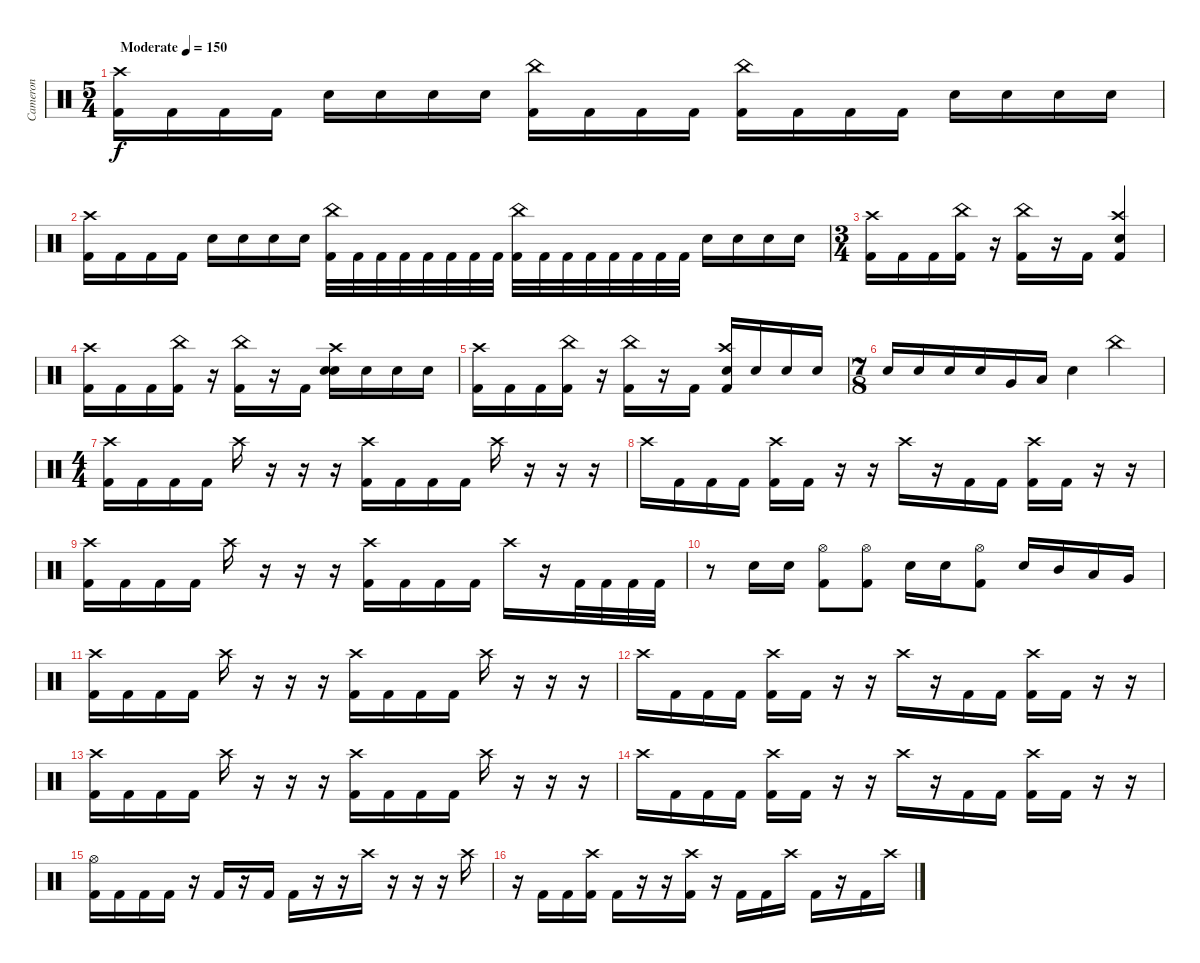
\track ("Cameron" "Cameron") {instrument percussion}
\staff {score}
\articulation defaults
\ts (5 4)
\tempo (150 "Moderate")
\clef neutral
\ks c
("Kick (hit) 2" "Crash high (hit)").16{dy f} "Kick (hit) 2".16 "Kick (hit) 2".16 "Kick (hit) 2".16 "Electric Snare (hit)".16 "Electric Snare (hit)".16 "Electric Snare (hit)".16 "Electric Snare (hit)".16 ("Kick (hit) 2" "China (hit)").16 "Kick (hit) 2".16 "Kick (hit) 2".16 "Kick (hit) 2".16 ("Kick (hit) 2" "China (hit)").16 "Kick (hit) 2".16 "Kick (hit) 2".16 "Kick (hit) 2".16 "Electric Snare (hit)".16 "Electric Snare (hit)".16 "Electric Snare (hit)".16 "Electric Snare (hit)".16 |
("Kick (hit) 2" "Crash high (hit)").16 "Kick (hit) 2".16 "Kick (hit) 2".16 "Kick (hit) 2".16 "Electric Snare (hit)".16 "Electric Snare (hit)".16 "Electric Snare (hit)".16 "Electric Snare (hit)".16 ("Kick (hit) 2" "China (hit)").32 "Kick (hit) 2".32 "Kick (hit) 2".32 "Kick (hit) 2".32 "Kick (hit) 2".32 "Kick (hit) 2".32 "Kick (hit) 2".32 "Kick (hit) 2".32 ("Kick (hit) 2" "China (hit)").32 "Kick (hit) 2".32 "Kick (hit) 2".32 "Kick (hit) 2".32 "Kick (hit) 2".32 "Kick (hit) 2".32 "Kick (hit) 2".32 "Kick (hit) 2".32 "Electric Snare (hit)".16 "Electric Snare (hit)".16 "Electric Snare (hit)".16 "Electric Snare (hit)".16 |
\ts (3 4)
("Kick (hit) 2" "Crash high (hit)").16 "Kick (hit) 2".16 "Kick (hit) 2".16 ("Kick (hit) 2" "China (hit)").16 r.16 ("Kick (hit) 2" "China (hit)").16 r.16 "Kick (hit) 2".16 ("Kick (hit) 2" "Electric Snare (hit)" "Crash high (hit)").4 |
("Kick (hit) 2" "Crash high (hit)").16 "Kick (hit) 2".16 "Kick (hit) 2".16 ("Kick (hit) 2" "China (hit)").16 r.16 ("Kick (hit) 2" "China (hit)").16 r.16 "Kick (hit) 2".16 ("Electric Snare (hit)" "Electric Snare (hit)" "Crash high (hit)").16 "Electric Snare (hit)".16 "Electric Snare (hit)".16 "Electric Snare (hit)".16 |
("Kick (hit) 2" "Crash high (hit)").16 "Kick (hit) 2".16 "Kick (hit) 2".16 ("Kick (hit) 2" "China (hit)").16 r.16 ("Kick (hit) 2" "China (hit)").16 r.16 "Kick (hit) 2".16 ("Kick (hit) 2" "Electric Snare (hit)" "Crash high (hit)").16 "Electric Snare (hit)".16 "Electric Snare (hit)".16 "Electric Snare (hit)".16 |
\ts (7 8)
"Electric Snare (hit)".16 "Electric Snare (hit)".16 "Electric Snare (hit)".16 "Electric Snare (hit)".16 "Very Low Tom (hit)".16 "Low Tom (hit)".16 "Snare (hit)".4 "China (hit)".4 |
\ts (4 4)
("Kick (hit) 2" "Crash high (hit)").16 "Kick (hit) 2".16 "Kick (hit) 2".16 "Kick (hit) 2".16 "Crash high (hit)".16 r.16 r.16 r.16 ("Kick (hit) 2" "Crash high (hit)").16 "Kick (hit) 2".16 "Kick (hit) 2".16 "Kick (hit) 2".16 "Crash high (hit)".16 r.16 r.16 r.16 |
"Crash high (hit)".16 "Kick (hit) 2".16 "Kick (hit) 2".16 "Kick (hit) 2".16 ("Kick (hit) 2" "Crash high (hit)").16 "Kick (hit) 2".16 r.16 r.16 "Crash high (hit)".16 r.16 "Kick (hit) 2".16 "Kick (hit) 2".16 ("Kick (hit) 2" "Crash high (hit)").16 "Kick (hit) 2".16 r.16 r.16 |
("Kick (hit) 2" "Crash high (hit)").16 "Kick (hit) 2".16 "Kick (hit) 2".16 "Kick (hit) 2".16 "Crash high (hit)".16 r.16 r.16 r.16 ("Kick (hit) 2" "Crash high (hit)").16 "Kick (hit) 2".16 "Kick (hit) 2".16 "Kick (hit) 2".16 "Crash high (hit)".16 r.16 "Kick (hit) 2".32 "Kick (hit) 2".32 "Kick (hit) 2".32 "Kick (hit) 2".32 |
r.8 "Electric Snare (hit)".16 "Electric Snare (hit)".16 ("Kick (hit) 2" "Hi-Hat (open)").8 ("Kick (hit) 2" "Hi-Hat (open)").8 "Electric Snare (hit)".16 "Electric Snare (hit)".16 ("Kick (hit) 2" "Hi-Hat (open)").8 "Electric Snare (hit)".16 "Mid Tom (hit)".16 "Low Tom (hit)".16 "Very Low Tom (hit)".16 |
("Kick (hit) 2" "Crash high (hit)").16 "Kick (hit) 2".16 "Kick (hit) 2".16 "Kick (hit) 2".16 "Crash high (hit)".16 r.16 r.16 r.16 ("Kick (hit) 2" "Crash high (hit)").16 "Kick (hit) 2".16 "Kick (hit) 2".16 "Kick (hit) 2".16 "Crash high (hit)".16 r.16 r.16 r.16 |
"Crash high (hit)".16 "Kick (hit) 2".16 "Kick (hit) 2".16 "Kick (hit) 2".16 ("Kick (hit) 2" "Crash high (hit)").16 "Kick (hit) 2".16 r.16 r.16 "Crash high (hit)".16 r.16 "Kick (hit) 2".16 "Kick (hit) 2".16 ("Kick (hit) 2" "Crash high (hit)").16 "Kick (hit) 2".16 r.16 r.16 |
("Kick (hit) 2" "Crash high (hit)").16 "Kick (hit) 2".16 "Kick (hit) 2".16 "Kick (hit) 2".16 "Crash high (hit)".16 r.16 r.16 r.16 ("Kick (hit) 2" "Crash high (hit)").16 "Kick (hit) 2".16 "Kick (hit) 2".16 "Kick (hit) 2".16 "Crash high (hit)".16 r.16 r.16 r.16 |
"Crash high (hit)".16 "Kick (hit) 2".16 "Kick (hit) 2".16 "Kick (hit) 2".16 ("Kick (hit) 2" "Crash high (hit)").16 "Kick (hit) 2".16 r.16 r.16 "Crash high (hit)".16 r.16 "Kick (hit) 2".16 "Kick (hit) 2".16 ("Kick (hit) 2" "Crash high (hit)").16 "Kick (hit) 2".16 r.16 r.16 |
("Kick (hit) 2" "Hi-Hat (open)").16 "Kick (hit) 2".16 "Kick (hit) 2".16 "Kick (hit) 2".16 r.16 "Kick (hit) 2".16 r.16 "Kick (hit) 2".16 "Kick (hit) 2".16 r.16 r.16 "Crash high (hit)".16 r.16 r.16 r.16 "Crash high (hit)".16 |
r.16 "Kick (hit) 2".16 "Kick (hit) 2".16 ("Kick (hit) 2" "Crash high (hit)").16 "Kick (hit) 2".16 r.16 r.16 ("Kick (hit) 2" "Crash high (hit)").16 r.16 "Kick (hit) 2".16 "Kick (hit) 2".16 "Crash high (hit)".16 "Kick (hit) 2".16 r.16 "Kick (hit) 2".16 "Crash high (hit)".16
